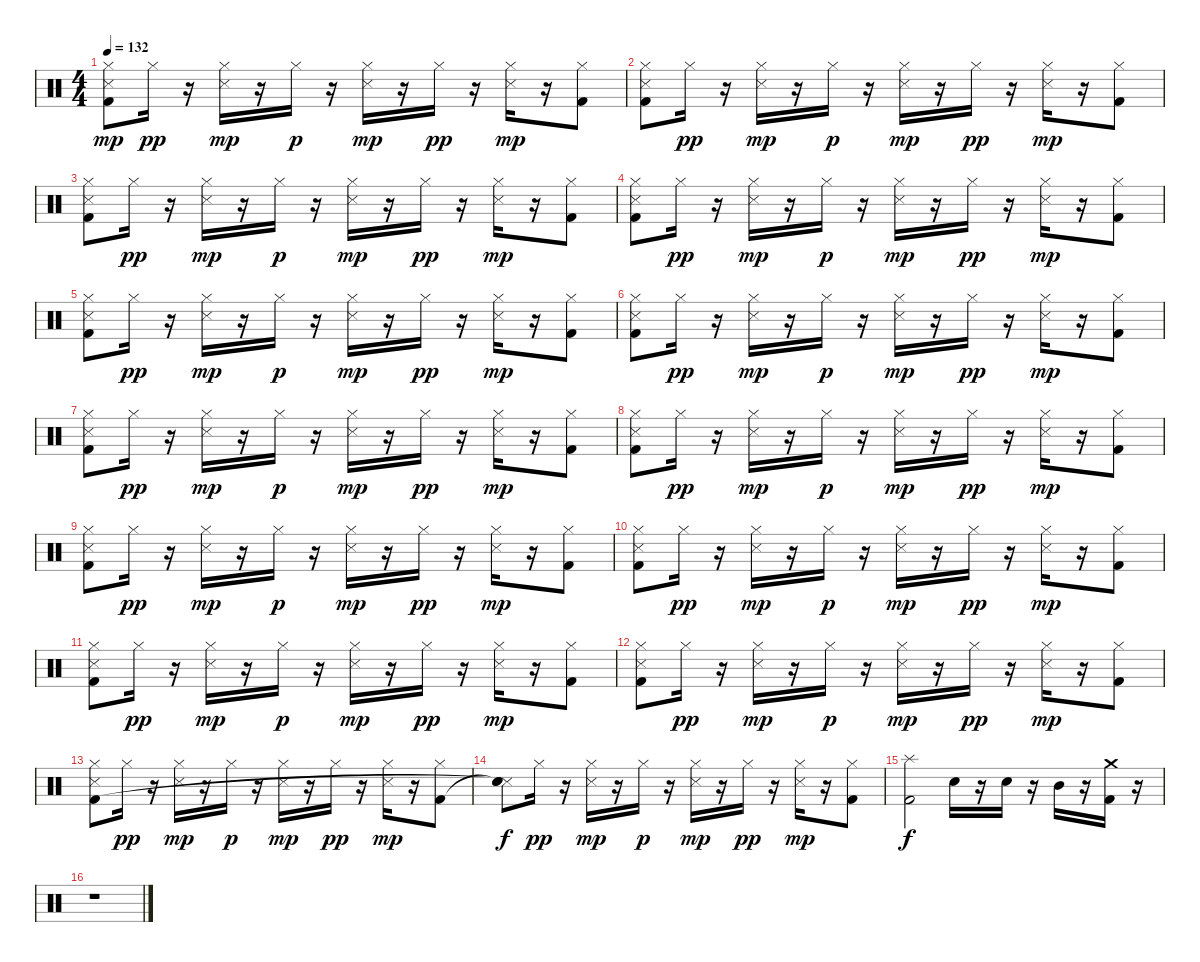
\track "" {instrument percussion}
\staff {score}
\articulation defaults
\ts (4 4)
\tempo 132
\clef neutral
\ks c
("Snare (side stick) 3" "Hi-Hat (closed)" "Kick (hit) 2").8{dy mp} "Hi-Hat (closed)".16{dy pp} r.16 ("Snare (side stick) 3" "Hi-Hat (closed)").16{dy mp} r.16 "Hi-Hat (closed)".16{dy p} r.16 ("Snare (side stick) 3" "Hi-Hat (closed)").16{dy mp} r.16 "Hi-Hat (closed)".16{dy pp} r.16 ("Snare (side stick) 3" "Hi-Hat (closed)").16{dy mp} r.16 ("Hi-Hat (closed)" "Kick (hit) 2").8 |
("Snare (side stick) 3" "Hi-Hat (closed)" "Kick (hit) 2").8 "Hi-Hat (closed)".16{dy pp} r.16 ("Snare (side stick) 3" "Hi-Hat (closed)").16{dy mp} r.16 "Hi-Hat (closed)".16{dy p} r.16 ("Snare (side stick) 3" "Hi-Hat (closed)").16{dy mp} r.16 "Hi-Hat (closed)".16{dy pp} r.16 ("Snare (side stick) 3" "Hi-Hat (closed)").16{dy mp} r.16 ("Hi-Hat (closed)" "Kick (hit) 2").8 |
("Snare (side stick) 3" "Hi-Hat (closed)" "Kick (hit) 2").8 "Hi-Hat (closed)".16{dy pp} r.16 ("Snare (side stick) 3" "Hi-Hat (closed)").16{dy mp} r.16 "Hi-Hat (closed)".16{dy p} r.16 ("Snare (side stick) 3" "Hi-Hat (closed)").16{dy mp} r.16 "Hi-Hat (closed)".16{dy pp} r.16 ("Snare (side stick) 3" "Hi-Hat (closed)").16{dy mp} r.16 ("Hi-Hat (closed)" "Kick (hit) 2").8 |
("Snare (side stick) 3" "Hi-Hat (closed)" "Kick (hit) 2").8 "Hi-Hat (closed)".16{dy pp} r.16 ("Snare (side stick) 3" "Hi-Hat (closed)").16{dy mp} r.16 "Hi-Hat (closed)".16{dy p} r.16 ("Snare (side stick) 3" "Hi-Hat (closed)").16{dy mp} r.16 "Hi-Hat (closed)".16{dy pp} r.16 ("Snare (side stick) 3" "Hi-Hat (closed)").16{dy mp} r.16 ("Hi-Hat (closed)" "Kick (hit) 2").8 |
("Snare (side stick) 3" "Hi-Hat (closed)" "Kick (hit) 2").8 "Hi-Hat (closed)".16{dy pp} r.16 ("Snare (side stick) 3" "Hi-Hat (closed)").16{dy mp} r.16 "Hi-Hat (closed)".16{dy p} r.16 ("Snare (side stick) 3" "Hi-Hat (closed)").16{dy mp} r.16 "Hi-Hat (closed)".16{dy pp} r.16 ("Snare (side stick) 3" "Hi-Hat (closed)").16{dy mp} r.16 ("Hi-Hat (closed)" "Kick (hit) 2").8 |
("Snare (side stick) 3" "Hi-Hat (closed)" "Kick (hit) 2").8 "Hi-Hat (closed)".16{dy pp} r.16 ("Snare (side stick) 3" "Hi-Hat (closed)").16{dy mp} r.16 "Hi-Hat (closed)".16{dy p} r.16 ("Snare (side stick) 3" "Hi-Hat (closed)").16{dy mp} r.16 "Hi-Hat (closed)".16{dy pp} r.16 ("Snare (side stick) 3" "Hi-Hat (closed)").16{dy mp} r.16 ("Hi-Hat (closed)" "Kick (hit) 2").8 |
("Snare (side stick) 3" "Hi-Hat (closed)" "Kick (hit) 2").8 "Hi-Hat (closed)".16{dy pp} r.16 ("Snare (side stick) 3" "Hi-Hat (closed)").16{dy mp} r.16 "Hi-Hat (closed)".16{dy p} r.16 ("Snare (side stick) 3" "Hi-Hat (closed)").16{dy mp} r.16 "Hi-Hat (closed)".16{dy pp} r.16 ("Snare (side stick) 3" "Hi-Hat (closed)").16{dy mp} r.16 ("Hi-Hat (closed)" "Kick (hit) 2").8 |
("Snare (side stick) 3" "Hi-Hat (closed)" "Kick (hit) 2").8 "Hi-Hat (closed)".16{dy pp} r.16 ("Snare (side stick) 3" "Hi-Hat (closed)").16{dy mp} r.16 "Hi-Hat (closed)".16{dy p} r.16 ("Snare (side stick) 3" "Hi-Hat (closed)").16{dy mp} r.16 "Hi-Hat (closed)".16{dy pp} r.16 ("Snare (side stick) 3" "Hi-Hat (closed)").16{dy mp} r.16 ("Hi-Hat (closed)" "Kick (hit) 2").8 |
("Snare (side stick) 3" "Hi-Hat (closed)" "Kick (hit) 2").8 "Hi-Hat (closed)".16{dy pp} r.16 ("Snare (side stick) 3" "Hi-Hat (closed)").16{dy mp} r.16 "Hi-Hat (closed)".16{dy p} r.16 ("Snare (side stick) 3" "Hi-Hat (closed)").16{dy mp} r.16 "Hi-Hat (closed)".16{dy pp} r.16 ("Snare (side stick) 3" "Hi-Hat (closed)").16{dy mp} r.16 ("Hi-Hat (closed)" "Kick (hit) 2").8 |
("Snare (side stick) 3" "Hi-Hat (closed)" "Kick (hit) 2").8 "Hi-Hat (closed)".16{dy pp} r.16 ("Snare (side stick) 3" "Hi-Hat (closed)").16{dy mp} r.16 "Hi-Hat (closed)".16{dy p} r.16 ("Snare (side stick) 3" "Hi-Hat (closed)").16{dy mp} r.16 "Hi-Hat (closed)".16{dy pp} r.16 ("Snare (side stick) 3" "Hi-Hat (closed)").16{dy mp} r.16 ("Hi-Hat (closed)" "Kick (hit) 2").8 |
("Snare (side stick) 3" "Hi-Hat (closed)" "Kick (hit) 2").8 "Hi-Hat (closed)".16{dy pp} r.16 ("Snare (side stick) 3" "Hi-Hat (closed)").16{dy mp} r.16 "Hi-Hat (closed)".16{dy p} r.16 ("Snare (side stick) 3" "Hi-Hat (closed)").16{dy mp} r.16 "Hi-Hat (closed)".16{dy pp} r.16 ("Snare (side stick) 3" "Hi-Hat (closed)").16{dy mp} r.16 ("Hi-Hat (closed)" "Kick (hit) 2").8 |
("Snare (side stick) 3" "Hi-Hat (closed)" "Kick (hit) 2").8 "Hi-Hat (closed)".16{dy pp} r.16 ("Snare (side stick) 3" "Hi-Hat (closed)").16{dy mp} r.16 "Hi-Hat (closed)".16{dy p} r.16 ("Snare (side stick) 3" "Hi-Hat (closed)").16{dy mp} r.16 "Hi-Hat (closed)".16{dy pp} r.16 ("Snare (side stick) 3" "Hi-Hat (closed)").16{dy mp} r.16 ("Hi-Hat (closed)" "Kick (hit) 2").8 |
("Snare (side stick) 3" "Hi-Hat (closed)" "Kick (hit) 2").8 "Hi-Hat (closed)".16{dy pp} r.16 ("Snare (side stick) 3" "Hi-Hat (closed)").16{dy mp} r.16 "Hi-Hat (closed)".16{dy p} r.16 ("Snare (side stick) 3" "Hi-Hat (closed)").16{dy mp} r.16 "Hi-Hat (closed)".16{dy pp} r.16 ("Snare (side stick) 3" "Hi-Hat (closed)").16{dy mp} r.16 ("Hi-Hat (closed)" "Kick (hit) 2").8 |
("Snare (side stick) 3" "Snare (hit)"{t} "Snare (hit)"{t}).8{dy f} "Hi-Hat (closed)".16{dy pp} r.16 ("Snare (side stick) 3" "Hi-Hat (closed)").16{dy mp} r.16 "Hi-Hat (closed)".16{dy p} r.16 ("Snare (side stick) 3" "Hi-Hat (closed)").16{dy mp} r.16 "Hi-Hat (closed)".16{dy pp} r.16 ("Snare (side stick) 3" "Hi-Hat (closed)").16{dy mp} r.16 ("Hi-Hat (closed)" "Kick (hit) 2").8 |
("Splash (hit)" "Kick (hit) 2").2{dy f} "Snare (hit) 2".16 r.16 "Snare (hit) 2".16 r.16 "Mid Tom (hit)".16 r.16 ("Crash medium (hit)" "Kick (hit) 2").16 r.16 |
r.1
